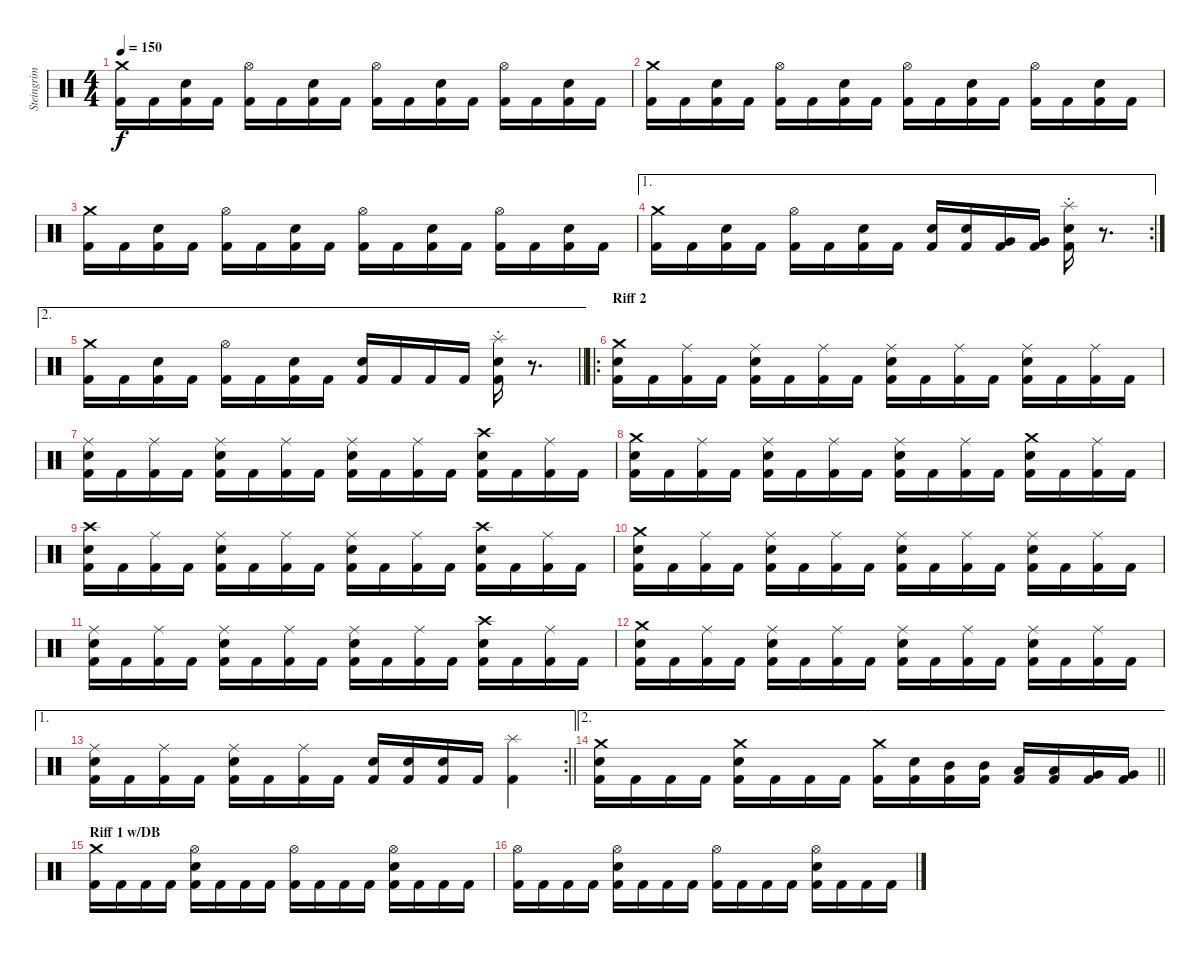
\track ("Steingrim" "Steingrim") {instrument percussion}
\staff {score}
\articulation defaults
\ts (4 4)
\tempo 150
\clef neutral
\ks c
("Crash medium (hit)" "Kick (hit) 2").16{dy f} "Kick (hit) 2".16 ("Snare (hit) 2" "Kick (hit) 2").16 "Kick (hit) 2".16 ("Hi-Hat (open)" "Kick (hit) 2").16 "Kick (hit) 2".16 ("Snare (hit) 2" "Kick (hit) 2").16 "Kick (hit) 2".16 ("Hi-Hat (open)" "Kick (hit) 2").16 "Kick (hit) 2".16 ("Snare (hit) 2" "Kick (hit) 2").16 "Kick (hit) 2".16 ("Hi-Hat (open)" "Kick (hit) 2").16 "Kick (hit) 2".16 ("Snare (hit) 2" "Kick (hit) 2").16 "Kick (hit) 2".16 |
("Crash medium (hit)" "Kick (hit) 2").16 "Kick (hit) 2".16 ("Snare (hit) 2" "Kick (hit) 2").16 "Kick (hit) 2".16 ("Hi-Hat (open)" "Kick (hit) 2").16 "Kick (hit) 2".16 ("Snare (hit) 2" "Kick (hit) 2").16 "Kick (hit) 2".16 ("Hi-Hat (open)" "Kick (hit) 2").16 "Kick (hit) 2".16 ("Snare (hit) 2" "Kick (hit) 2").16 "Kick (hit) 2".16 ("Hi-Hat (open)" "Kick (hit) 2").16 "Kick (hit) 2".16 ("Snare (hit) 2" "Kick (hit) 2").16 "Kick (hit) 2".16 |
("Crash medium (hit)" "Kick (hit) 2").16 "Kick (hit) 2".16 ("Snare (hit) 2" "Kick (hit) 2").16 "Kick (hit) 2".16 ("Hi-Hat (open)" "Kick (hit) 2").16 "Kick (hit) 2".16 ("Snare (hit) 2" "Kick (hit) 2").16 "Kick (hit) 2".16 ("Hi-Hat (open)" "Kick (hit) 2").16 "Kick (hit) 2".16 ("Snare (hit) 2" "Kick (hit) 2").16 "Kick (hit) 2".16 ("Hi-Hat (open)" "Kick (hit) 2").16 "Kick (hit) 2".16 ("Snare (hit) 2" "Kick (hit) 2").16 "Kick (hit) 2".16 |
\ae 1
\rc 2
("Crash medium (hit)" "Kick (hit) 2").16 "Kick (hit) 2".16 ("Snare (hit) 2" "Kick (hit) 2").16 "Kick (hit) 2".16 ("Hi-Hat (open)" "Kick (hit) 2").16 "Kick (hit) 2".16 ("Snare (hit) 2" "Kick (hit) 2").16 "Kick (hit) 2".16 ("Snare (hit) 2" "Kick (hit) 2").16 ("Snare (hit) 2" "Kick (hit) 2").16 ("Very Low Tom (hit)" "Kick (hit) 2").16 ("Very Low Tom (hit)" "Kick (hit) 2").16 ("Splash (hit)"{st} "Snare (hit) 2" "Kick (hit) 2").16 r.8{d} |
\ae 2
\barLineRight lightlight
("Crash medium (hit)" "Kick (hit) 2").16 "Kick (hit) 2".16 ("Snare (hit) 2" "Kick (hit) 2").16 "Kick (hit) 2".16 ("Hi-Hat (open)" "Kick (hit) 2").16 "Kick (hit) 2".16 ("Snare (hit) 2" "Kick (hit) 2").16 "Kick (hit) 2".16 ("Snare (hit) 2" "Kick (hit) 2").16 "Kick (hit) 2".16 "Kick (hit) 2".16 "Kick (hit) 2".16 ("Splash (hit)"{st} "Snare (hit) 2" "Kick (hit) 2").16 r.8{d} |
\ro
\section ("" "Riff 2")
("Crash medium (hit)" "Snare (hit) 2" "Kick (hit) 2").16 "Kick (hit) 2".16 ("Ride (middle)" "Kick (hit) 2").16 "Kick (hit) 2".16 ("Ride (middle)" "Snare (hit) 2" "Kick (hit) 2").16 "Kick (hit) 2".16 ("Ride (middle)" "Kick (hit) 2").16 "Kick (hit) 2".16 ("Ride (middle)" "Snare (hit) 2" "Kick (hit) 2").16 "Kick (hit) 2".16 ("Ride (middle)" "Kick (hit) 2").16 "Kick (hit) 2".16 ("Ride (middle)" "Snare (hit) 2" "Kick (hit) 2").16 "Kick (hit) 2".16 ("Ride (middle)" "Kick (hit) 2").16 "Kick (hit) 2".16 |
("Ride (middle)" "Snare (hit) 2" "Kick (hit) 2").16 "Kick (hit) 2".16 ("Ride (middle)" "Kick (hit) 2").16 "Kick (hit) 2".16 ("Ride (middle)" "Snare (hit) 2" "Kick (hit) 2").16 "Kick (hit) 2".16 ("Ride (middle)" "Kick (hit) 2").16 "Kick (hit) 2".16 ("Ride (middle)" "Snare (hit) 2" "Kick (hit) 2").16 "Kick (hit) 2".16 ("Ride (middle)" "Kick (hit) 2").16 "Kick (hit) 2".16 ("Crash high (hit)" "Snare (hit) 2" "Kick (hit) 2").16 "Kick (hit) 2".16 ("Ride (middle)" "Kick (hit) 2").16 "Kick (hit) 2".16 |
("Crash medium (hit)" "Snare (hit) 2" "Kick (hit) 2").16 "Kick (hit) 2".16 ("Ride (middle)" "Kick (hit) 2").16 "Kick (hit) 2".16 ("Ride (middle)" "Snare (hit) 2" "Kick (hit) 2").16 "Kick (hit) 2".16 ("Ride (middle)" "Kick (hit) 2").16 "Kick (hit) 2".16 ("Ride (middle)" "Snare (hit) 2" "Kick (hit) 2").16 "Kick (hit) 2".16 ("Ride (middle)" "Kick (hit) 2").16 "Kick (hit) 2".16 ("Crash medium (hit)" "Snare (hit) 2" "Kick (hit) 2").16 "Kick (hit) 2".16 ("Ride (middle)" "Kick (hit) 2").16 "Kick (hit) 2".16 |
("Crash high (hit)" "Snare (hit) 2" "Kick (hit) 2").16 "Kick (hit) 2".16 ("Ride (middle)" "Kick (hit) 2").16 "Kick (hit) 2".16 ("Ride (middle)" "Snare (hit) 2" "Kick (hit) 2").16 "Kick (hit) 2".16 ("Ride (middle)" "Kick (hit) 2").16 "Kick (hit) 2".16 ("Ride (middle)" "Snare (hit) 2" "Kick (hit) 2").16 "Kick (hit) 2".16 ("Ride (middle)" "Kick (hit) 2").16 "Kick (hit) 2".16 ("Crash high (hit)" "Snare (hit) 2" "Kick (hit) 2").16 "Kick (hit) 2".16 ("Ride (middle)" "Kick (hit) 2").16 "Kick (hit) 2".16 |
("Crash medium (hit)" "Snare (hit) 2" "Kick (hit) 2").16 "Kick (hit) 2".16 ("Ride (middle)" "Kick (hit) 2").16 "Kick (hit) 2".16 ("Ride (middle)" "Snare (hit) 2" "Kick (hit) 2").16 "Kick (hit) 2".16 ("Ride (middle)" "Kick (hit) 2").16 "Kick (hit) 2".16 ("Ride (middle)" "Snare (hit) 2" "Kick (hit) 2").16 "Kick (hit) 2".16 ("Ride (middle)" "Kick (hit) 2").16 "Kick (hit) 2".16 ("Ride (middle)" "Snare (hit) 2" "Kick (hit) 2").16 "Kick (hit) 2".16 ("Ride (middle)" "Kick (hit) 2").16 "Kick (hit) 2".16 |
("Ride (middle)" "Snare (hit) 2" "Kick (hit) 2").16 "Kick (hit) 2".16 ("Ride (middle)" "Kick (hit) 2").16 "Kick (hit) 2".16 ("Ride (middle)" "Snare (hit) 2" "Kick (hit) 2").16 "Kick (hit) 2".16 ("Ride (middle)" "Kick (hit) 2").16 "Kick (hit) 2".16 ("Ride (middle)" "Snare (hit) 2" "Kick (hit) 2").16 "Kick (hit) 2".16 ("Ride (middle)" "Kick (hit) 2").16 "Kick (hit) 2".16 ("Crash high (hit)" "Snare (hit) 2" "Kick (hit) 2").16 "Kick (hit) 2".16 ("Ride (middle)" "Kick (hit) 2").16 "Kick (hit) 2".16 |
("Crash medium (hit)" "Snare (hit) 2" "Kick (hit) 2").16 "Kick (hit) 2".16 ("Ride (middle)" "Kick (hit) 2").16 "Kick (hit) 2".16 ("Ride (middle)" "Snare (hit) 2" "Kick (hit) 2").16 "Kick (hit) 2".16 ("Ride (middle)" "Kick (hit) 2").16 "Kick (hit) 2".16 ("Ride (middle)" "Snare (hit) 2" "Kick (hit) 2").16 "Kick (hit) 2".16 ("Ride (middle)" "Kick (hit) 2").16 "Kick (hit) 2".16 ("Ride (middle)" "Snare (hit) 2" "Kick (hit) 2").16 "Kick (hit) 2".16 ("Ride (middle)" "Kick (hit) 2").16 "Kick (hit) 2".16 |
\ae 1
\rc 2
\barLineRight lightlight
("Ride (middle)" "Snare (hit) 2" "Kick (hit) 2").16 "Kick (hit) 2".16 ("Ride (middle)" "Kick (hit) 2").16 "Kick (hit) 2".16 ("Ride (middle)" "Snare (hit) 2" "Kick (hit) 2").16 "Kick (hit) 2".16 ("Ride (middle)" "Kick (hit) 2").16 "Kick (hit) 2".16 ("Snare (hit) 2" "Kick (hit) 2").16 ("Snare (hit) 2" "Kick (hit) 2").16 ("Snare (hit) 2" "Kick (hit) 2").16 "Kick (hit) 2".16 ("Splash (hit)" "Kick (hit) 2").4 |
\ae 2
\barLineRight lightlight
("Crash medium (hit)" "Snare (hit) 2" "Kick (hit) 2").16 "Kick (hit) 2".16 "Kick (hit) 2".16 "Kick (hit) 2".16 ("Crash medium (hit)" "Snare (hit) 2" "Kick (hit) 2").16 "Kick (hit) 2".16 "Kick (hit) 2".16 "Kick (hit) 2".16 ("Crash medium (hit)" "Kick (hit) 2").16 ("Snare (hit) 2" "Kick (hit) 2").16 ("Mid Tom (hit)" "Kick (hit) 2").16 ("Mid Tom (hit)" "Kick (hit) 2").16 ("Low Tom (hit)" "Kick (hit) 2").16 ("Low Tom (hit)" "Kick (hit) 2").16 ("Very Low Tom (hit)" "Kick (hit) 2").16 ("Very Low Tom (hit)" "Kick (hit) 2").16 |
\section ("" "Riff 1 w/DB")
("Crash medium (hit)" "Kick (hit) 2").16 "Kick (hit) 2".16 "Kick (hit) 2".16 "Kick (hit) 2".16 ("Hi-Hat (open)" "Snare (hit) 2" "Kick (hit) 2").16 "Kick (hit) 2".16 "Kick (hit) 2".16 "Kick (hit) 2".16 ("Hi-Hat (open)" "Kick (hit) 2").16 "Kick (hit) 2".16 "Kick (hit) 2".16 "Kick (hit) 2".16 ("Hi-Hat (open)" "Snare (hit) 2" "Kick (hit) 2").16 "Kick (hit) 2".16 "Kick (hit) 2".16 "Kick (hit) 2".16 |
("Hi-Hat (open)" "Kick (hit) 2").16 "Kick (hit) 2".16 "Kick (hit) 2".16 "Kick (hit) 2".16 ("Hi-Hat (open)" "Snare (hit) 2" "Kick (hit) 2").16 "Kick (hit) 2".16 "Kick (hit) 2".16 "Kick (hit) 2".16 ("Hi-Hat (open)" "Kick (hit) 2").16 "Kick (hit) 2".16 "Kick (hit) 2".16 "Kick (hit) 2".16 ("Hi-Hat (open)" "Snare (hit) 2" "Kick (hit) 2").16 "Kick (hit) 2".16 "Kick (hit) 2".16 "Kick (hit) 2".16
